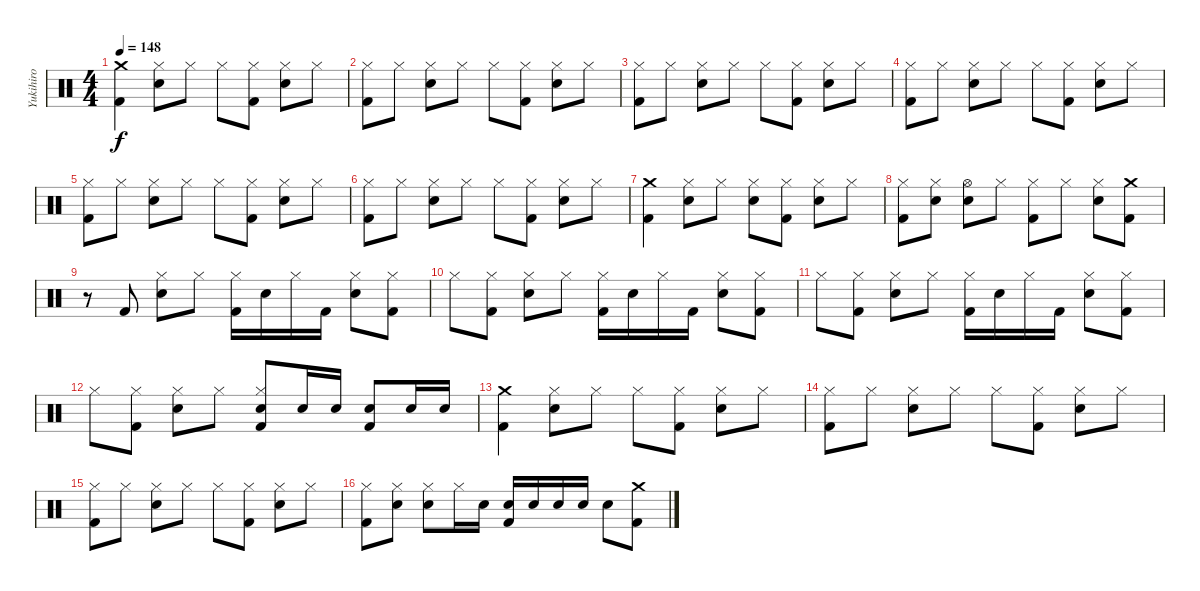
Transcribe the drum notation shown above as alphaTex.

\track ("Yukihiro" "Yukihiro") {instrument percussion}
\staff {score}
\articulation defaults
\ts (4 4)
\tempo 148
\clef neutral
\ks c
("Crash medium (hit)" "Kick (hit) 2").4{dy f} ("Hi-Hat (closed)" "Snare (hit) 2").8 "Hi-Hat (closed)".8 "Hi-Hat (closed)".8 ("Hi-Hat (closed)" "Kick (hit) 2").8 ("Hi-Hat (closed)" "Snare (hit) 2").8 "Hi-Hat (closed)".8 |
("Hi-Hat (closed)" "Kick (hit) 2").8 "Hi-Hat (closed)".8 ("Hi-Hat (closed)" "Snare (hit) 2").8 "Hi-Hat (closed)".8 "Hi-Hat (closed)".8 ("Hi-Hat (closed)" "Kick (hit) 2").8 ("Hi-Hat (closed)" "Snare (hit) 2").8 "Hi-Hat (closed)".8 |
("Hi-Hat (closed)" "Kick (hit) 2").8 "Hi-Hat (closed)".8 ("Hi-Hat (closed)" "Snare (hit) 2").8 "Hi-Hat (closed)".8 "Hi-Hat (closed)".8 ("Hi-Hat (closed)" "Kick (hit) 2").8 ("Hi-Hat (closed)" "Snare (hit) 2").8 "Hi-Hat (closed)".8 |
("Hi-Hat (closed)" "Kick (hit) 2").8 "Hi-Hat (closed)".8 ("Hi-Hat (closed)" "Snare (hit) 2").8 "Hi-Hat (closed)".8 "Hi-Hat (closed)".8 ("Hi-Hat (closed)" "Kick (hit) 2").8 ("Hi-Hat (closed)" "Snare (hit) 2").8 "Hi-Hat (closed)".8 |
("Hi-Hat (closed)" "Kick (hit) 2").8 "Hi-Hat (closed)".8 ("Hi-Hat (closed)" "Snare (hit) 2").8 "Hi-Hat (closed)".8 "Hi-Hat (closed)".8 ("Hi-Hat (closed)" "Kick (hit) 2").8 ("Hi-Hat (closed)" "Snare (hit) 2").8 "Hi-Hat (closed)".8 |
("Hi-Hat (closed)" "Kick (hit) 2").8 "Hi-Hat (closed)".8 ("Hi-Hat (closed)" "Snare (hit) 2").8 "Hi-Hat (closed)".8 "Hi-Hat (closed)".8 ("Hi-Hat (closed)" "Kick (hit) 2").8 ("Hi-Hat (closed)" "Snare (hit) 2").8 "Hi-Hat (closed)".8 |
("Crash medium (hit)" "Kick (hit) 2").4 ("Hi-Hat (closed)" "Snare (hit) 2").8 "Hi-Hat (closed)".8 ("Hi-Hat (closed)" "Snare (hit) 2").8 ("Hi-Hat (closed)" "Kick (hit) 2").8 ("Hi-Hat (closed)" "Snare (hit) 2").8 "Hi-Hat (closed)".8 |
("Hi-Hat (closed)" "Kick (hit) 2").8 ("Hi-Hat (closed)" "Snare (hit) 2").8 ("Hi-Hat (open)" "Snare (hit) 2").8 "Hi-Hat (closed)".8 ("Hi-Hat (closed)" "Kick (hit) 2").8 "Hi-Hat (closed)".8 ("Hi-Hat (closed)" "Snare (hit) 2").8 ("Crash medium (hit)" "Kick (hit) 2").8 |
r.8 "Kick (hit) 2".8 ("Hi-Hat (closed)" "Snare (hit) 2").8 "Hi-Hat (closed)".8 ("Hi-Hat (closed)" "Kick (hit) 2").16 "Snare (hit) 2".16 "Hi-Hat (closed)".16 "Kick (hit) 2".16 ("Hi-Hat (closed)" "Snare (hit) 2").8 ("Hi-Hat (closed)" "Kick (hit) 2").8 |
"Hi-Hat (closed)".8 ("Hi-Hat (closed)" "Kick (hit) 2").8 ("Hi-Hat (closed)" "Snare (hit) 2").8 "Hi-Hat (closed)".8 ("Hi-Hat (closed)" "Kick (hit) 2").16 "Snare (hit) 2".16 "Hi-Hat (closed)".16 "Kick (hit) 2".16 ("Hi-Hat (closed)" "Snare (hit) 2").8 ("Hi-Hat (closed)" "Kick (hit) 2").8 |
"Hi-Hat (closed)".8 ("Hi-Hat (closed)" "Kick (hit) 2").8 ("Hi-Hat (closed)" "Snare (hit) 2").8 "Hi-Hat (closed)".8 ("Hi-Hat (closed)" "Kick (hit) 2").16 "Snare (hit) 2".16 "Hi-Hat (closed)".16 "Kick (hit) 2".16 ("Hi-Hat (closed)" "Snare (hit) 2").8 ("Hi-Hat (closed)" "Kick (hit) 2").8 |
"Hi-Hat (closed)".8 ("Hi-Hat (closed)" "Kick (hit) 2").8 ("Hi-Hat (closed)" "Snare (hit) 2").8 "Hi-Hat (closed)".8 ("Hi-Hat (closed)" "Snare (hit) 2" "Kick (hit) 2").8 "Snare (hit) 2".16 "Snare (hit) 2".16 ("Snare (hit) 2" "Kick (hit) 2").8 "Snare (hit) 2".16 "Snare (hit) 2".16 |
("Crash medium (hit)" "Kick (hit) 2").4 ("Hi-Hat (closed)" "Snare (hit) 2").8 "Hi-Hat (closed)".8 "Hi-Hat (closed)".8 ("Hi-Hat (closed)" "Kick (hit) 2").8 ("Hi-Hat (closed)" "Snare (hit) 2").8 "Hi-Hat (closed)".8 |
("Hi-Hat (closed)" "Kick (hit) 2").8 "Hi-Hat (closed)".8 ("Hi-Hat (closed)" "Snare (hit) 2").8 "Hi-Hat (closed)".8 "Hi-Hat (closed)".8 ("Hi-Hat (closed)" "Kick (hit) 2").8 ("Hi-Hat (closed)" "Snare (hit) 2").8 "Hi-Hat (closed)".8 |
("Hi-Hat (closed)" "Kick (hit) 2").8 "Hi-Hat (closed)".8 ("Hi-Hat (closed)" "Snare (hit) 2").8 "Hi-Hat (closed)".8 "Hi-Hat (closed)".8 ("Hi-Hat (closed)" "Kick (hit) 2").8 ("Hi-Hat (closed)" "Snare (hit) 2").8 "Hi-Hat (closed)".8 |
("Hi-Hat (closed)" "Kick (hit) 2").8 ("Hi-Hat (closed)" "Snare (hit) 2").8 ("Hi-Hat (closed)" "Snare (hit) 2").8 "Hi-Hat (closed)".16 "Snare (hit) 2".16 ("Snare (hit) 2" "Kick (hit) 2").16 "Snare (hit) 2".16 "Snare (hit) 2".16 "Snare (hit) 2".16 "Snare (hit) 2".8 ("Crash medium (hit)" "Kick (hit) 2").8
